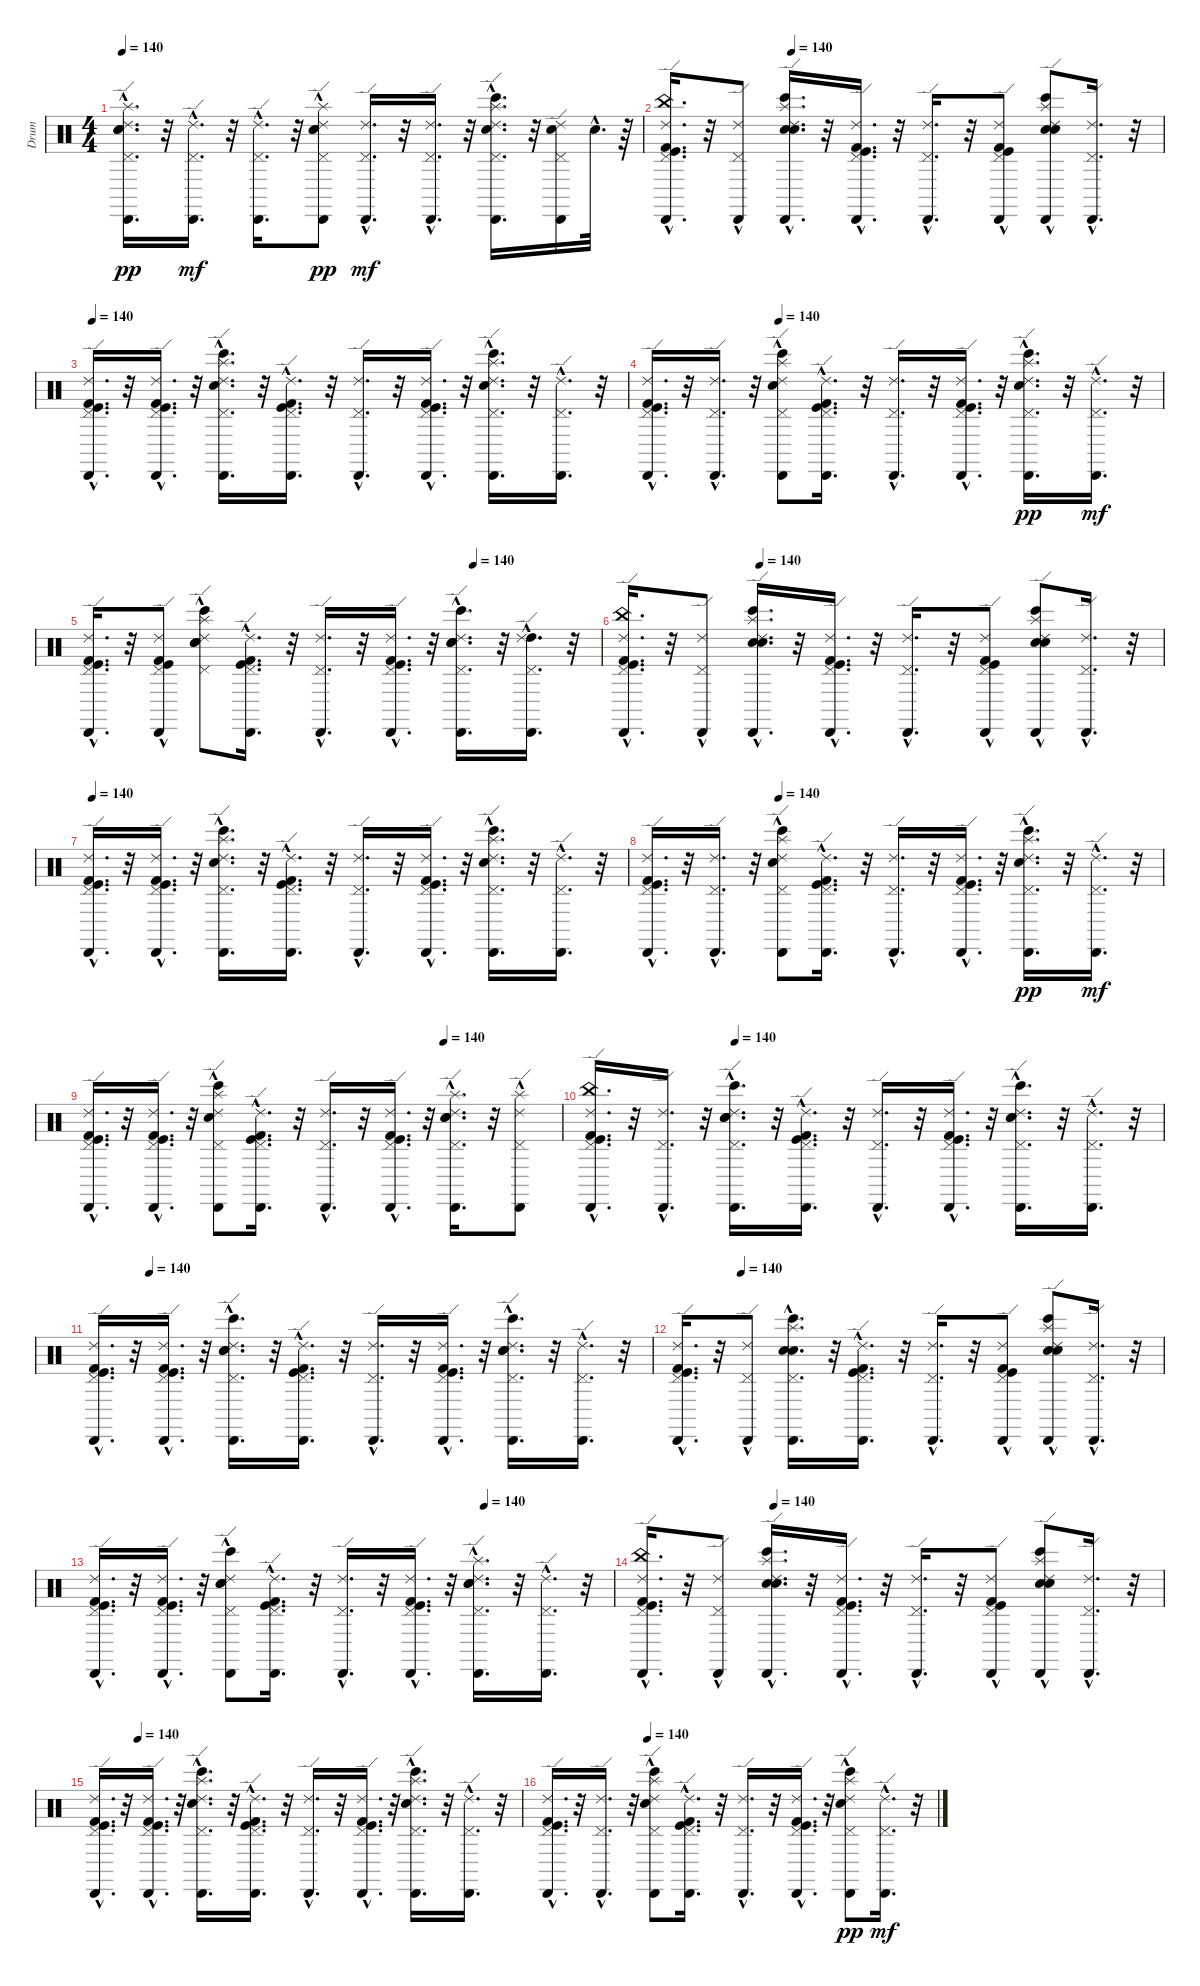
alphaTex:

\track ("Drum" "Drum") {instrument percussion}
\staff {score}
\articulation defaults
\ts (4 4)
\tempo 140
\clef neutral
\ks c
("Pedal Hi-Hat (hit)"{hac} "Cabasa (hit)"{hac} "Ride (edge) 2"{hac} "Electric Snare (hit)"{hac} "Snare (hit) 2"{hac} "Splash (hit)"{hac}).16{d dy pp} r.32 ("Pedal Hi-Hat (hit)"{hac} "Ride (edge) 2"{hac} "Cabasa (hit)"{hac}).16{d dy mf} r.32 ("Ride (edge) 2"{hac} "Cabasa (hit)"{hac} "Pedal Hi-Hat (hit)"{hac}).16{d} r.32 ("Pedal Hi-Hat (hit)"{hac} "Cabasa (hit)"{hac} "Ride (edge) 2"{hac} "Electric Snare (hit)"{hac} "Snare (hit) 2"{hac} "Splash (hit)"{hac}).8{dy pp} ("Pedal Hi-Hat (hit)"{hac} "Ride (edge) 2"{hac} "Cabasa (hit)"{hac}).16{d dy mf} r.32 ("Pedal Hi-Hat (hit)"{hac} "Ride (edge) 2"{hac} "Cabasa (hit)"{hac}).16{d} r.32 ("Pedal Hi-Hat (hit)"{hac} "Ride (edge) 2"{hac} "Splash (hit)"{hac} "Cabasa (hit)"{hac} "Bongo High (hit)"{hac} "Electric Snare (hit)"{hac}).16{d} r.32 ("Pedal Hi-Hat (hit)" "Ride (edge) 2" "Cabasa (hit)" "Snare (hit) 2").16 "Snare (hit) 2"{hac}.32{d} r.64 |
\tempo (140 0.25)
("China (hit)"{hac} "Cabasa (hit)"{hac} "Ride (edge) 2"{hac} "Kick (hit) 2"{hac} "Kick (hit)"{hac} "Pedal Hi-Hat (hit)"{hac}).16{d} r.32 ("Cabasa (hit)"{hac} "Ride (edge) 2"{hac} "Pedal Hi-Hat (hit)"{hac}).8 ("Splash (hit)"{hac} "Bongo High (hit)"{hac} "Electric Snare (hit)"{hac} "Cabasa (hit)"{hac} "Ride (edge) 2"{hac} "Snare (hit) 2"{hac}).16{d} r.32 ("Cabasa (hit)"{hac} "Ride (edge) 2"{hac} "Kick (hit) 2"{hac} "Kick (hit)"{hac} "Pedal Hi-Hat (hit)"{hac}).16{d} r.32 ("Cabasa (hit)"{hac} "Ride (edge) 2"{hac} "Pedal Hi-Hat (hit)"{hac}).16{d} r.32 ("Cabasa (hit)"{hac} "Ride (edge) 2"{hac} "Kick (hit) 2"{hac} "Kick (hit)"{hac} "Pedal Hi-Hat (hit)"{hac}).8 ("Splash (hit)"{hac} "Bongo High (hit)"{hac} "Electric Snare (hit)"{hac} "Cabasa (hit)"{hac} "Ride (edge) 2"{hac} "Snare (hit) 2").8 ("Cabasa (hit)"{hac} "Ride (edge) 2"{hac} "Pedal Hi-Hat (hit)"{hac}).16{d} r.32 |
\tempo 140
("Cabasa (hit)"{hac} "Ride (edge) 2"{hac} "Kick (hit) 2"{hac} "Pedal Hi-Hat (hit)"{hac} "Kick (hit)"{hac}).16{d} r.32 ("Cabasa (hit)"{hac} "Ride (edge) 2"{hac} "Kick (hit) 2"{hac} "Kick (hit)"{hac} "Pedal Hi-Hat (hit)"{hac}).16{d} r.32 ("Splash (hit)"{hac} "Electric Snare (hit)"{hac} "Bongo High (hit)"{hac} "Cabasa (hit)"{hac} "Ride (edge) 2"{hac} "Pedal Hi-Hat (hit)"{hac}).16{d} r.32 ("Cabasa (hit)"{hac} "Ride (edge) 2"{hac} "Kick (hit) 2"{hac} "Pedal Hi-Hat (hit)"{hac} "Kick (hit)"{hac}).16{d} r.32 ("Cabasa (hit)"{hac} "Ride (edge) 2"{hac} "Pedal Hi-Hat (hit)"{hac}).16{d} r.32 ("Cabasa (hit)"{hac} "Ride (edge) 2"{hac} "Kick (hit) 2"{hac} "Pedal Hi-Hat (hit)"{hac} "Kick (hit)"{hac}).16{d} r.32 ("Splash (hit)"{hac} "Electric Snare (hit)"{hac} "Bongo High (hit)"{hac} "Cabasa (hit)"{hac} "Ride (edge) 2"{hac} "Pedal Hi-Hat (hit)"{hac}).16{d} r.32 ("Cabasa (hit)"{hac} "Ride (edge) 2"{hac} "Pedal Hi-Hat (hit)"{hac}).16{d} r.32 |
\tempo (140 0.25)
("Kick (hit)"{hac} "Pedal Hi-Hat (hit)"{hac} "Kick (hit) 2"{hac} "Ride (edge) 2"{hac} "Cabasa (hit)"{hac}).16{d} r.32 ("Ride (edge) 2"{hac} "Pedal Hi-Hat (hit)"{hac} "Cabasa (hit)"{hac}).16{d} r.32 ("Electric Snare (hit)" "Bongo High (hit)"{hac} "Ride (edge) 2"{hac} "Pedal Hi-Hat (hit)"{hac} "Splash (hit)"{hac} "Cabasa (hit)"{hac}).8 ("Pedal Hi-Hat (hit)"{hac} "Kick (hit)"{hac} "Kick (hit) 2"{hac} "Ride (edge) 2"{hac} "Cabasa (hit)"{hac}).16{d} r.32 ("Cabasa (hit)"{hac} "Pedal Hi-Hat (hit)"{hac} "Ride (edge) 2"{hac}).16{d} r.32 ("Kick (hit)"{hac} "Kick (hit) 2"{hac} "Cabasa (hit)"{hac} "Pedal Hi-Hat (hit)"{hac} "Ride (edge) 2"{hac}).16{d} r.32 ("Snare (hit) 2"{hac} "Cabasa (hit)"{hac} "Pedal Hi-Hat (hit)"{hac} "Ride (edge) 2"{hac} "Bongo High (hit)"{hac} "Splash (hit)"{hac}).16{d dy pp} r.32 ("Pedal Hi-Hat (hit)"{hac} "Cabasa (hit)"{hac} "Ride (edge) 2"{hac}).16{d dy mf} r.32 |
\tempo (140 0.75)
("Ride (edge) 2"{hac} "Pedal Hi-Hat (hit)"{hac} "Kick (hit) 2"{hac} "Kick (hit)"{hac} "Cabasa (hit)"{hac}).16{d} r.32 ("Pedal Hi-Hat (hit)"{hac} "Ride (edge) 2"{hac} "Cabasa (hit)"{hac} "Kick (hit)"{hac} "Kick (hit) 2"{hac}).8 ("Splash (hit)" "Snare (hit) 2"{hac} "Bongo High (hit)"{hac} "Electric Snare (hit)"{hac} "Ride (edge) 2"{hac} "Pedal Hi-Hat (hit)"{hac}).8 ("Ride (edge) 2"{hac} "Kick (hit) 2"{hac} "Pedal Hi-Hat (hit)"{hac} "Cabasa (hit)"{hac} "Kick (hit)"{hac}).16{d} r.32 ("Cabasa (hit)"{hac} "Ride (edge) 2"{hac} "Pedal Hi-Hat (hit)"{hac}).16{d} r.32 ("Kick (hit)"{hac} "Ride (edge) 2"{hac} "Cabasa (hit)"{hac} "Pedal Hi-Hat (hit)"{hac} "Kick (hit) 2"{hac}).16{d} r.32 ("Bongo High (hit)"{hac} "Electric Snare (hit)"{hac} "Ride (edge) 2"{hac} "Pedal Hi-Hat (hit)"{hac} "Cabasa (hit)"{hac} "Snare (hit) 2"{hac}).16{d} r.32 ("High Tom (hit)"{hac} "Cabasa (hit)"{hac} "Ride (edge) 2"{hac} "Pedal Hi-Hat (hit)"{hac}).16{d} r.32 |
\tempo (140 0.25)
("China (hit)"{hac} "Cabasa (hit)"{hac} "Ride (edge) 2"{hac} "Kick (hit) 2"{hac} "Kick (hit)"{hac} "Pedal Hi-Hat (hit)"{hac}).16{d} r.32 ("Cabasa (hit)"{hac} "Ride (edge) 2"{hac} "Pedal Hi-Hat (hit)"{hac}).8 ("Splash (hit)"{hac} "Bongo High (hit)"{hac} "Electric Snare (hit)"{hac} "Cabasa (hit)"{hac} "Ride (edge) 2"{hac} "Snare (hit) 2"{hac}).16{d} r.32 ("Cabasa (hit)"{hac} "Ride (edge) 2"{hac} "Kick (hit) 2"{hac} "Kick (hit)"{hac} "Pedal Hi-Hat (hit)"{hac}).16{d} r.32 ("Cabasa (hit)"{hac} "Ride (edge) 2"{hac} "Pedal Hi-Hat (hit)"{hac}).16{d} r.32 ("Cabasa (hit)"{hac} "Ride (edge) 2"{hac} "Kick (hit) 2"{hac} "Kick (hit)"{hac} "Pedal Hi-Hat (hit)"{hac}).8 ("Splash (hit)"{hac} "Bongo High (hit)"{hac} "Electric Snare (hit)"{hac} "Cabasa (hit)"{hac} "Ride (edge) 2"{hac} "Snare (hit) 2").8 ("Cabasa (hit)"{hac} "Ride (edge) 2"{hac} "Pedal Hi-Hat (hit)"{hac}).16{d} r.32 |
\tempo 140
("Cabasa (hit)"{hac} "Ride (edge) 2"{hac} "Kick (hit) 2"{hac} "Pedal Hi-Hat (hit)"{hac} "Kick (hit)"{hac}).16{d} r.32 ("Cabasa (hit)"{hac} "Ride (edge) 2"{hac} "Kick (hit) 2"{hac} "Kick (hit)"{hac} "Pedal Hi-Hat (hit)"{hac}).16{d} r.32 ("Splash (hit)"{hac} "Electric Snare (hit)"{hac} "Bongo High (hit)"{hac} "Cabasa (hit)"{hac} "Ride (edge) 2"{hac} "Pedal Hi-Hat (hit)"{hac}).16{d} r.32 ("Cabasa (hit)"{hac} "Ride (edge) 2"{hac} "Kick (hit) 2"{hac} "Pedal Hi-Hat (hit)"{hac} "Kick (hit)"{hac}).16{d} r.32 ("Cabasa (hit)"{hac} "Ride (edge) 2"{hac} "Pedal Hi-Hat (hit)"{hac}).16{d} r.32 ("Cabasa (hit)"{hac} "Ride (edge) 2"{hac} "Kick (hit) 2"{hac} "Pedal Hi-Hat (hit)"{hac} "Kick (hit)"{hac}).16{d} r.32 ("Splash (hit)"{hac} "Electric Snare (hit)"{hac} "Bongo High (hit)"{hac} "Cabasa (hit)"{hac} "Ride (edge) 2"{hac} "Pedal Hi-Hat (hit)"{hac}).16{d} r.32 ("Cabasa (hit)"{hac} "Ride (edge) 2"{hac} "Pedal Hi-Hat (hit)"{hac}).16{d} r.32 |
\tempo (140 0.25)
("Kick (hit)"{hac} "Pedal Hi-Hat (hit)"{hac} "Kick (hit) 2"{hac} "Ride (edge) 2"{hac} "Cabasa (hit)"{hac}).16{d} r.32 ("Ride (edge) 2"{hac} "Pedal Hi-Hat (hit)"{hac} "Cabasa (hit)"{hac}).16{d} r.32 ("Electric Snare (hit)" "Bongo High (hit)"{hac} "Ride (edge) 2"{hac} "Pedal Hi-Hat (hit)"{hac} "Splash (hit)"{hac} "Cabasa (hit)"{hac}).8 ("Pedal Hi-Hat (hit)"{hac} "Kick (hit)"{hac} "Kick (hit) 2"{hac} "Ride (edge) 2"{hac} "Cabasa (hit)"{hac}).16{d} r.32 ("Cabasa (hit)"{hac} "Pedal Hi-Hat (hit)"{hac} "Ride (edge) 2"{hac}).16{d} r.32 ("Kick (hit)"{hac} "Kick (hit) 2"{hac} "Cabasa (hit)"{hac} "Pedal Hi-Hat (hit)"{hac} "Ride (edge) 2"{hac}).16{d} r.32 ("Snare (hit) 2"{hac} "Cabasa (hit)"{hac} "Pedal Hi-Hat (hit)"{hac} "Ride (edge) 2"{hac} "Bongo High (hit)"{hac} "Splash (hit)"{hac}).16{d dy pp} r.32 ("Pedal Hi-Hat (hit)"{hac} "Cabasa (hit)"{hac} "Ride (edge) 2"{hac}).16{d dy mf} r.32 |
\tempo (140 0.75)
("Pedal Hi-Hat (hit)"{hac} "Kick (hit)"{hac} "Cabasa (hit)"{hac} "Kick (hit) 2"{hac} "Ride (edge) 2"{hac}).16{d} r.32 ("Kick (hit) 2"{hac} "Kick (hit)"{hac} "Pedal Hi-Hat (hit)"{hac} "Ride (edge) 2"{hac} "Cabasa (hit)"{hac}).16{d} r.32 ("Ride (edge) 2"{hac} "Cabasa (hit)"{hac} "Pedal Hi-Hat (hit)"{hac} "Snare (hit) 2"{hac} "Splash (hit)"{hac} "Bongo High (hit)").8 ("Pedal Hi-Hat (hit)"{hac} "Kick (hit)"{hac} "Cabasa (hit)"{hac} "Kick (hit) 2"{hac} "Ride (edge) 2"{hac}).16{d} r.32 ("Pedal Hi-Hat (hit)"{hac} "Ride (edge) 2"{hac} "Cabasa (hit)"{hac}).16{d} r.32 ("Kick (hit) 2"{hac} "Pedal Hi-Hat (hit)"{hac} "Kick (hit)"{hac} "Ride (edge) 2"{hac} "Cabasa (hit)"{hac}).16{d} r.32 ("Pedal Hi-Hat (hit)"{hac} "Ride (edge) 2"{hac} "Snare (hit) 2"{hac} "Splash (hit)"{hac} "Cabasa (hit)"{hac} "Electric Snare (hit)"{hac}).16{d} r.32 ("Splash (hit)" "Pedal Hi-Hat (hit)"{hac} "Ride (edge) 2"{hac} "Cabasa (hit)"{hac}).8 |
\tempo (140 0.25)
("Pedal Hi-Hat (hit)"{hac} "Kick (hit)"{hac} "Kick (hit) 2"{hac} "Ride (edge) 2"{hac} "Cabasa (hit)"{hac} "China (hit)"{hac}).16{d} r.32 ("Pedal Hi-Hat (hit)"{hac} "Ride (edge) 2"{hac} "Cabasa (hit)"{hac}).16{d} r.32 ("Pedal Hi-Hat (hit)"{hac} "Snare (hit) 2"{hac} "Ride (edge) 2"{hac} "Cabasa (hit)"{hac} "Electric Snare (hit)"{hac} "Bongo High (hit)"{hac}).16{d} r.32 ("Pedal Hi-Hat (hit)"{hac} "Kick (hit)"{hac} "Kick (hit) 2"{hac} "Ride (edge) 2"{hac} "Cabasa (hit)"{hac}).16{d} r.32 ("Pedal Hi-Hat (hit)"{hac} "Ride (edge) 2"{hac} "Cabasa (hit)"{hac}).16{d} r.32 ("Pedal Hi-Hat (hit)"{hac} "Kick (hit)"{hac} "Kick (hit) 2"{hac} "Ride (edge) 2"{hac} "Cabasa (hit)"{hac}).16{d} r.32 ("Pedal Hi-Hat (hit)"{hac} "Snare (hit) 2"{hac} "Ride (edge) 2"{hac} "Cabasa (hit)"{hac} "Electric Snare (hit)"{hac} "Bongo High (hit)"{hac}).16{d} r.32 ("Pedal Hi-Hat (hit)"{hac} "Ride (edge) 2"{hac} "Cabasa (hit)"{hac}).16{d} r.32 |
\tempo (140 0.09375)
("Kick (hit)"{hac} "Pedal Hi-Hat (hit)"{hac} "Kick (hit) 2"{hac} "Ride (edge) 2"{hac} "Cabasa (hit)"{hac}).16{d} r.32 ("Pedal Hi-Hat (hit)"{hac} "Kick (hit)"{hac} "Kick (hit) 2"{hac} "Ride (edge) 2"{hac} "Cabasa (hit)"{hac}).16{d} r.32 ("Snare (hit) 2"{hac} "Pedal Hi-Hat (hit)"{hac} "Ride (edge) 2"{hac} "Cabasa (hit)"{hac} "Bongo High (hit)"{hac} "Electric Snare (hit)"{hac}).16{d} r.32 ("Kick (hit)"{hac} "Pedal Hi-Hat (hit)"{hac} "Kick (hit) 2"{hac} "Ride (edge) 2"{hac} "Cabasa (hit)"{hac}).16{d} r.32 ("Pedal Hi-Hat (hit)"{hac} "Ride (edge) 2"{hac} "Cabasa (hit)"{hac}).16{d} r.32 ("Kick (hit)"{hac} "Pedal Hi-Hat (hit)"{hac} "Kick (hit) 2"{hac} "Ride (edge) 2"{hac} "Cabasa (hit)"{hac}).16{d} r.32 ("Snare (hit) 2"{hac} "Pedal Hi-Hat (hit)"{hac} "Ride (edge) 2"{hac} "Cabasa (hit)"{hac} "Bongo High (hit)"{hac} "Electric Snare (hit)"{hac}).16{d} r.32 ("Pedal Hi-Hat (hit)"{hac} "Ride (edge) 2"{hac} "Cabasa (hit)"{hac}).16{d} r.32 |
\tempo (140 0.125)
("Cabasa (hit)"{hac} "Kick (hit) 2"{hac} "Pedal Hi-Hat (hit)"{hac} "Ride (edge) 2"{hac} "Kick (hit)"{hac}).16{d} r.32 ("Pedal Hi-Hat (hit)"{hac} "Ride (edge) 2"{hac} "Cabasa (hit)"{hac}).8 ("Cabasa (hit)"{hac} "Bongo High (hit)"{hac} "Pedal Hi-Hat (hit)"{hac} "Snare (hit) 2"{hac} "Splash (hit)"{hac} "Electric Snare (hit)"{hac}).16{d} r.32 ("Kick (hit) 2"{hac} "Ride (edge) 2"{hac} "Cabasa (hit)"{hac} "Pedal Hi-Hat (hit)"{hac} "Kick (hit)"{hac}).16{d} r.32 ("Ride (edge) 2"{hac} "Pedal Hi-Hat (hit)"{hac} "Cabasa (hit)"{hac}).16{d} r.32 ("Pedal Hi-Hat (hit)"{hac} "Kick (hit) 2"{hac} "Cabasa (hit)"{hac} "Kick (hit)"{hac} "Ride (edge) 2"{hac}).8 ("Snare (hit) 2"{hac} "Bongo High (hit)"{hac} "Electric Snare (hit)"{hac} "Splash (hit)" "Cabasa (hit)"{hac} "Ride (edge) 2"{hac}).8 ("Ride (edge) 2"{hac} "Pedal Hi-Hat (hit)"{hac} "Cabasa (hit)"{hac}).16{d} r.32 |
\tempo (140 0.75)
("Cabasa (hit)"{hac} "Kick (hit)"{hac} "Kick (hit) 2"{hac} "Pedal Hi-Hat (hit)"{hac} "Ride (edge) 2"{hac}).16{d} r.32 ("Kick (hit) 2"{hac} "Kick (hit)"{hac} "Cabasa (hit)"{hac} "Ride (edge) 2"{hac} "Pedal Hi-Hat (hit)"{hac}).16{d} r.32 ("Cabasa (hit)"{hac} "Pedal Hi-Hat (hit)"{hac} "Ride (edge) 2"{hac} "Electric Snare (hit)"{hac} "Bongo High (hit)" "Snare (hit) 2"{hac}).8 ("Kick (hit)"{hac} "Cabasa (hit)"{hac} "Pedal Hi-Hat (hit)"{hac} "Kick (hit) 2"{hac} "Ride (edge) 2"{hac}).16{d} r.32 ("Pedal Hi-Hat (hit)"{hac} "Ride (edge) 2"{hac} "Cabasa (hit)"{hac}).16{d} r.32 ("Kick (hit) 2"{hac} "Pedal Hi-Hat (hit)"{hac} "Cabasa (hit)"{hac} "Ride (edge) 2"{hac} "Kick (hit)"{hac}).16{d} r.32 ("Splash (hit)"{hac} "Snare (hit) 2"{hac} "Cabasa (hit)"{hac} "Pedal Hi-Hat (hit)"{hac} "Ride (edge) 2"{hac} "Electric Snare (hit)"{hac}).16{d} r.32 ("Pedal Hi-Hat (hit)"{hac} "Ride (edge) 2"{hac} "Cabasa (hit)"{hac}).16{d} r.32 |
\tempo (140 0.25)
("China (hit)"{hac} "Cabasa (hit)"{hac} "Ride (edge) 2"{hac} "Kick (hit) 2"{hac} "Kick (hit)"{hac} "Pedal Hi-Hat (hit)"{hac}).16{d} r.32 ("Cabasa (hit)"{hac} "Ride (edge) 2"{hac} "Pedal Hi-Hat (hit)"{hac}).8 ("Splash (hit)"{hac} "Bongo High (hit)"{hac} "Electric Snare (hit)"{hac} "Cabasa (hit)"{hac} "Ride (edge) 2"{hac} "Snare (hit) 2"{hac}).16{d} r.32 ("Cabasa (hit)"{hac} "Ride (edge) 2"{hac} "Kick (hit) 2"{hac} "Kick (hit)"{hac} "Pedal Hi-Hat (hit)"{hac}).16{d} r.32 ("Cabasa (hit)"{hac} "Ride (edge) 2"{hac} "Pedal Hi-Hat (hit)"{hac}).16{d} r.32 ("Cabasa (hit)"{hac} "Ride (edge) 2"{hac} "Kick (hit) 2"{hac} "Kick (hit)"{hac} "Pedal Hi-Hat (hit)"{hac}).8 ("Splash (hit)"{hac} "Bongo High (hit)"{hac} "Electric Snare (hit)"{hac} "Cabasa (hit)"{hac} "Ride (edge) 2"{hac} "Snare (hit) 2").8 ("Cabasa (hit)"{hac} "Ride (edge) 2"{hac} "Pedal Hi-Hat (hit)"{hac}).16{d} r.32 |
\tempo (140 0.09375)
("Cabasa (hit)"{hac} "Ride (edge) 2"{hac} "Kick (hit) 2"{hac} "Pedal Hi-Hat (hit)"{hac} "Kick (hit)"{hac}).16{d} r.32 ("Cabasa (hit)"{hac} "Ride (edge) 2"{hac} "Kick (hit) 2"{hac} "Kick (hit)"{hac} "Pedal Hi-Hat (hit)"{hac}).16{d} r.32 ("Splash (hit)"{hac} "Electric Snare (hit)"{hac} "Bongo High (hit)"{hac} "Cabasa (hit)"{hac} "Ride (edge) 2"{hac} "Pedal Hi-Hat (hit)"{hac}).16{d} r.32 ("Cabasa (hit)"{hac} "Ride (edge) 2"{hac} "Kick (hit) 2"{hac} "Pedal Hi-Hat (hit)"{hac} "Kick (hit)"{hac}).16{d} r.32 ("Cabasa (hit)"{hac} "Ride (edge) 2"{hac} "Pedal Hi-Hat (hit)"{hac}).16{d} r.32 ("Cabasa (hit)"{hac} "Ride (edge) 2"{hac} "Kick (hit) 2"{hac} "Pedal Hi-Hat (hit)"{hac} "Kick (hit)"{hac}).16{d} r.32 ("Splash (hit)"{hac} "Electric Snare (hit)"{hac} "Bongo High (hit)"{hac} "Cabasa (hit)"{hac} "Ride (edge) 2"{hac} "Pedal Hi-Hat (hit)"{hac}).16{d} r.32 ("Cabasa (hit)"{hac} "Ride (edge) 2"{hac} "Pedal Hi-Hat (hit)"{hac}).16{d} r.32 |
\tempo (140 0.25)
("Kick (hit)"{hac} "Pedal Hi-Hat (hit)"{hac} "Kick (hit) 2"{hac} "Ride (edge) 2"{hac} "Cabasa (hit)"{hac}).16{d} r.32 ("Ride (edge) 2"{hac} "Pedal Hi-Hat (hit)"{hac} "Cabasa (hit)"{hac}).16{d} r.32 ("Electric Snare (hit)" "Bongo High (hit)"{hac} "Ride (edge) 2"{hac} "Pedal Hi-Hat (hit)"{hac} "Splash (hit)"{hac} "Cabasa (hit)"{hac}).8 ("Pedal Hi-Hat (hit)"{hac} "Kick (hit)"{hac} "Kick (hit) 2"{hac} "Ride (edge) 2"{hac} "Cabasa (hit)"{hac}).16{d} r.32 ("Cabasa (hit)"{hac} "Pedal Hi-Hat (hit)"{hac} "Ride (edge) 2"{hac}).16{d} r.32 ("Kick (hit)"{hac} "Kick (hit) 2"{hac} "Cabasa (hit)"{hac} "Pedal Hi-Hat (hit)"{hac} "Ride (edge) 2"{hac}).16{d} r.32 ("Snare (hit) 2"{hac} "Cabasa (hit)"{hac} "Pedal Hi-Hat (hit)"{hac} "Ride (edge) 2"{hac} "Bongo High (hit)" "Splash (hit)"{hac}).8{dy pp} ("Pedal Hi-Hat (hit)"{hac} "Cabasa (hit)"{hac} "Ride (edge) 2"{hac}).16{d dy mf} r.32
